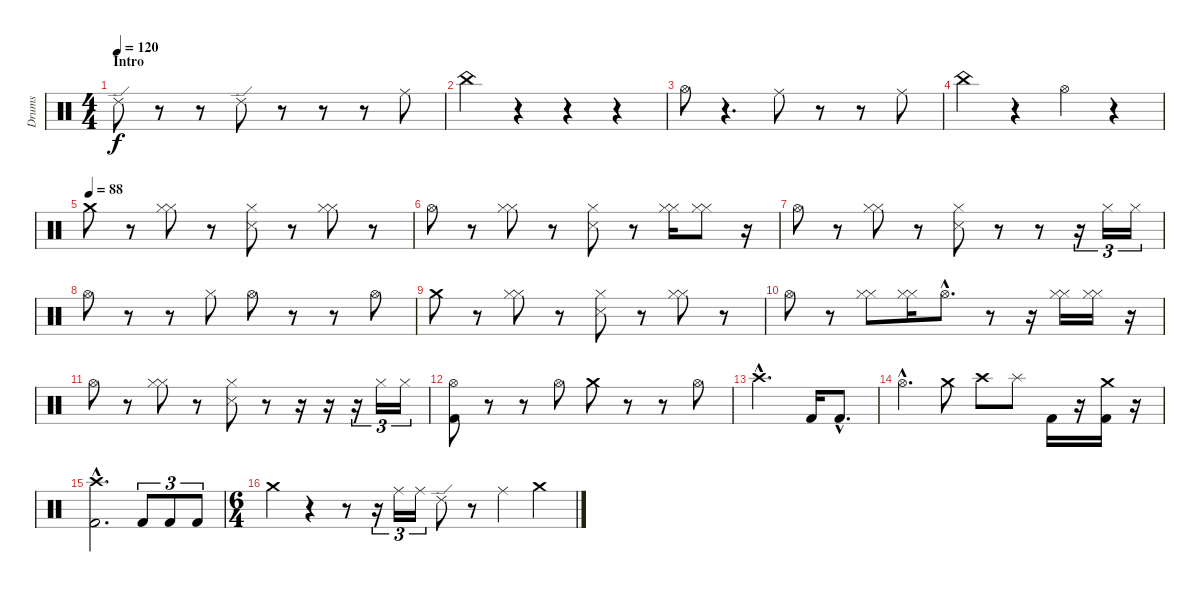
\track ("Drums" "Drums") {instrument percussion}
\staff {score}
\articulation defaults
\ts (4 4)
\section ("" "Intro")
\tempo 120
\tempo 88
\tempo 120
\clef neutral
\ks c "Ride (edge) 2".8{dy f}
r.8 r.8 "Ride (edge) 2".8 r.8 r.8 r.8 "Ride (middle)".8 |
"China (hit)".4 r.4 r.4 r.4 |
"Hi-Hat (open)".8 r.4{d} "Ride (middle)".8 r.8 r.8 "Ride (middle)".8 |
"China (hit)".4 r.4 "Hi-Hat (open)".4 r.4 |
\tempo (88)
"Crash medium (hit)".8 r.8 ("Hi-Hat (closed)" "Hi-Hat (closed)").8 r.8 ("Snare (side stick) 3" "Hi-Hat (closed)").8 r.8 ("Hi-Hat (closed)" "Hi-Hat (closed)").8 r.8 |
"Hi-Hat (open)".8 r.8 ("Hi-Hat (closed)" "Hi-Hat (closed)").8 r.8 ("Snare (side stick) 3" "Hi-Hat (closed)").8 r.8 ("Hi-Hat (closed)" "Hi-Hat (closed)").16 ("Hi-Hat (closed)" "Hi-Hat (closed)").8 r.16 |
"Hi-Hat (open)".8 r.8 ("Hi-Hat (closed)" "Hi-Hat (closed)").8 r.8 ("Snare (side stick) 3" "Hi-Hat (closed)").8 r.8 r.8 r.16{tu (3 2)} "Hi-Hat (closed)".16{tu (3 2)} "Hi-Hat (closed)".16{tu (3 2)} |
"Hi-Hat (open)".8 r.8 r.8 "Hi-Hat (closed)".8 "Hi-Hat (open)".8 r.8 r.8 "Hi-Hat (open)".8 |
"Crash medium (hit)".8 r.8 ("Hi-Hat (closed)" "Hi-Hat (closed)").8 r.8 ("Snare (side stick) 3" "Hi-Hat (closed)").8 r.8 ("Hi-Hat (closed)" "Hi-Hat (closed)").8 r.8 |
"Hi-Hat (open)".8 r.8 ("Hi-Hat (closed)" "Hi-Hat (closed)").8 ("Hi-Hat (closed)" "Hi-Hat (closed)").16 "Hi-Hat (open)"{hac}.8{d} r.8 r.16 ("Hi-Hat (closed)" "Hi-Hat (closed)").16 ("Hi-Hat (closed)" "Hi-Hat (closed)").16 r.16 |
"Hi-Hat (open)".8 r.8 ("Hi-Hat (closed)" "Hi-Hat (closed)").8 r.8 ("Snare (side stick) 3" "Hi-Hat (closed)").8 r.8 r.16 r.16 r.16{tu (3 2)} "Hi-Hat (closed)".16{tu (3 2)} "Hi-Hat (closed)".16{tu (3 2)} |
("Hi-Hat (open)" "Kick (hit) 2").8 r.8 r.8 "Hi-Hat (open)".8 "Crash medium (hit)".8 r.8 r.8 "Hi-Hat (open)".8 |
"Crash high (hit)"{hac}.2{d} "Kick (hit) 2".16 "Kick (hit) 2"{hac}.8{d} |
"Hi-Hat (open)"{hac}.4{d} "Crash medium (hit)".8 "Crash high (hit)".8 "Splash (hit)".8 "Kick (hit) 2".16 r.16 ("Crash medium (hit)" "Kick (hit) 2").16 r.16 |
("Crash high (hit)"{hac} "Kick (hit) 2"{hac}).2{d} "Kick (hit) 2".8{tu (3 2)} "Kick (hit) 2".8{tu (3 2)} "Kick (hit) 2".8{tu (3 2)} |
\ts (6 4)
"Crash medium (hit)".4 r.4 r.8 r.16{tu (3 2)} "Ride (middle)".16{tu (3 2)} "Ride (middle)".16{tu (3 2)} "Ride (edge) 2".8 r.8 "Ride (middle)".4 "Crash medium (hit)".4
